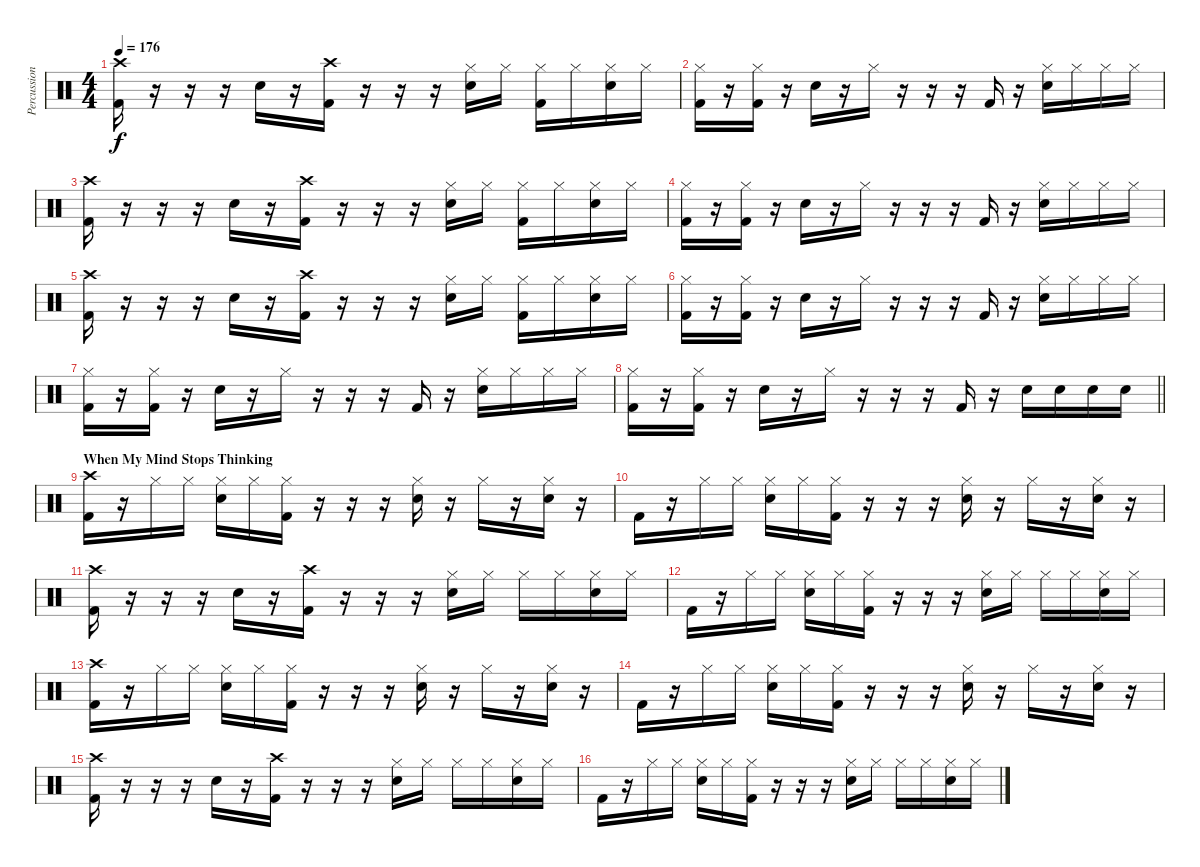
\track ("Percussion" "Percussion") {instrument percussion}
\staff {score}
\articulation defaults
\ts (4 4)
\tempo 176
\clef neutral
\ks c
("Kick (hit) 2" "Crash high (hit)").16{dy f} r.16 r.16 r.16 "Electric Snare (hit)".16 r.16 ("Kick (hit) 2" "Crash high (hit)").16 r.16 r.16 r.16 ("Electric Snare (hit)" "Hi-Hat (closed)").16 "Hi-Hat (closed)".16 ("Kick (hit) 2" "Hi-Hat (closed)").16 "Hi-Hat (closed)".16 ("Electric Snare (hit)" "Hi-Hat (closed)").16 "Hi-Hat (closed)".16 |
("Kick (hit) 2" "Hi-Hat (closed)").16 r.16 ("Kick (hit) 2" "Hi-Hat (closed)").16 r.16 "Electric Snare (hit)".16 r.16 "Hi-Hat (closed)".16 r.16 r.16 r.16 "Kick (hit) 2".16 r.16 ("Electric Snare (hit)" "Hi-Hat (closed)").16 "Hi-Hat (closed)".16 "Hi-Hat (closed)".16 "Hi-Hat (closed)".16 |
("Kick (hit) 2" "Crash high (hit)").16 r.16 r.16 r.16 "Electric Snare (hit)".16 r.16 ("Kick (hit) 2" "Crash high (hit)").16 r.16 r.16 r.16 ("Electric Snare (hit)" "Hi-Hat (closed)").16 "Hi-Hat (closed)".16 ("Kick (hit) 2" "Hi-Hat (closed)").16 "Hi-Hat (closed)".16 ("Electric Snare (hit)" "Hi-Hat (closed)").16 "Hi-Hat (closed)".16 |
("Kick (hit) 2" "Hi-Hat (closed)").16 r.16 ("Kick (hit) 2" "Hi-Hat (closed)").16 r.16 "Electric Snare (hit)".16 r.16 "Hi-Hat (closed)".16 r.16 r.16 r.16 "Kick (hit) 2".16 r.16 ("Electric Snare (hit)" "Hi-Hat (closed)").16 "Hi-Hat (closed)".16 "Hi-Hat (closed)".16 "Hi-Hat (closed)".16 |
("Kick (hit) 2" "Crash high (hit)").16 r.16 r.16 r.16 "Electric Snare (hit)".16 r.16 ("Kick (hit) 2" "Crash high (hit)").16 r.16 r.16 r.16 ("Electric Snare (hit)" "Hi-Hat (closed)").16 "Hi-Hat (closed)".16 ("Kick (hit) 2" "Hi-Hat (closed)").16 "Hi-Hat (closed)".16 ("Electric Snare (hit)" "Hi-Hat (closed)").16 "Hi-Hat (closed)".16 |
("Kick (hit) 2" "Hi-Hat (closed)").16 r.16 ("Kick (hit) 2" "Hi-Hat (closed)").16 r.16 "Electric Snare (hit)".16 r.16 "Hi-Hat (closed)".16 r.16 r.16 r.16 "Kick (hit) 2".16 r.16 ("Electric Snare (hit)" "Hi-Hat (closed)").16 "Hi-Hat (closed)".16 "Hi-Hat (closed)".16 "Hi-Hat (closed)".16 |
("Kick (hit) 2" "Hi-Hat (closed)").16 r.16 ("Kick (hit) 2" "Hi-Hat (closed)").16 r.16 "Electric Snare (hit)".16 r.16 "Hi-Hat (closed)".16 r.16 r.16 r.16 "Kick (hit) 2".16 r.16 ("Electric Snare (hit)" "Hi-Hat (closed)").16 "Hi-Hat (closed)".16 "Hi-Hat (closed)".16 "Hi-Hat (closed)".16 |
\barLineRight lightlight
("Kick (hit) 2" "Hi-Hat (closed)").16 r.16 ("Kick (hit) 2" "Hi-Hat (closed)").16 r.16 "Electric Snare (hit)".16 r.16 "Hi-Hat (closed)".16 r.16 r.16 r.16 "Kick (hit) 2".16 r.16 "Electric Snare (hit)".16 "Electric Snare (hit)".16 "Electric Snare (hit)".16 "Electric Snare (hit)".16 |
\section ("" "When My Mind Stops Thinking")
("Kick (hit) 2" "Crash high (hit)").16 r.16 "Hi-Hat (closed)".16 "Hi-Hat (closed)".16 ("Electric Snare (hit)" "Hi-Hat (closed)").16 "Hi-Hat (closed)".16 ("Kick (hit) 2" "Hi-Hat (closed)").16 r.16 r.16 r.16 ("Electric Snare (hit)" "Hi-Hat (closed)").16 r.16 "Hi-Hat (closed)".16 r.16 ("Electric Snare (hit)" "Hi-Hat (closed)").16 r.16 |
"Kick (hit) 2".16 r.16 "Hi-Hat (closed)".16 "Hi-Hat (closed)".16 ("Electric Snare (hit)" "Hi-Hat (closed)").16 "Hi-Hat (closed)".16 ("Kick (hit) 2" "Hi-Hat (closed)").16 r.16 r.16 r.16 ("Electric Snare (hit)" "Hi-Hat (closed)").16 r.16 "Hi-Hat (closed)".16 r.16 ("Electric Snare (hit)" "Hi-Hat (closed)").16 r.16 |
("Kick (hit) 2" "Crash high (hit)").16 r.16 r.16 r.16 "Electric Snare (hit)".16 r.16 ("Kick (hit) 2" "Crash high (hit)").16 r.16 r.16 r.16 ("Electric Snare (hit)" "Hi-Hat (closed)").16 "Hi-Hat (closed)".16 "Hi-Hat (closed)".16 "Hi-Hat (closed)".16 ("Electric Snare (hit)" "Hi-Hat (closed)").16 "Hi-Hat (closed)".16 |
"Kick (hit) 2".16 r.16 "Hi-Hat (closed)".16 "Hi-Hat (closed)".16 ("Electric Snare (hit)" "Hi-Hat (closed)").16 "Hi-Hat (closed)".16 ("Kick (hit) 2" "Hi-Hat (closed)").16 r.16 r.16 r.16 ("Electric Snare (hit)" "Hi-Hat (closed)").16 "Hi-Hat (closed)".16 "Hi-Hat (closed)".16 "Hi-Hat (closed)".16 ("Electric Snare (hit)" "Hi-Hat (closed)").16 "Hi-Hat (closed)".16 |
("Kick (hit) 2" "Crash high (hit)").16 r.16 "Hi-Hat (closed)".16 "Hi-Hat (closed)".16 ("Electric Snare (hit)" "Hi-Hat (closed)").16 "Hi-Hat (closed)".16 ("Kick (hit) 2" "Hi-Hat (closed)").16 r.16 r.16 r.16 ("Electric Snare (hit)" "Hi-Hat (closed)").16 r.16 "Hi-Hat (closed)".16 r.16 ("Electric Snare (hit)" "Hi-Hat (closed)").16 r.16 |
"Kick (hit) 2".16 r.16 "Hi-Hat (closed)".16 "Hi-Hat (closed)".16 ("Electric Snare (hit)" "Hi-Hat (closed)").16 "Hi-Hat (closed)".16 ("Kick (hit) 2" "Hi-Hat (closed)").16 r.16 r.16 r.16 ("Electric Snare (hit)" "Hi-Hat (closed)").16 r.16 "Hi-Hat (closed)".16 r.16 ("Electric Snare (hit)" "Hi-Hat (closed)").16 r.16 |
("Kick (hit) 2" "Crash high (hit)").16 r.16 r.16 r.16 "Electric Snare (hit)".16 r.16 ("Kick (hit) 2" "Crash high (hit)").16 r.16 r.16 r.16 ("Electric Snare (hit)" "Hi-Hat (closed)").16 "Hi-Hat (closed)".16 "Hi-Hat (closed)".16 "Hi-Hat (closed)".16 ("Electric Snare (hit)" "Hi-Hat (closed)").16 "Hi-Hat (closed)".16 |
"Kick (hit) 2".16 r.16 "Hi-Hat (closed)".16 "Hi-Hat (closed)".16 ("Electric Snare (hit)" "Hi-Hat (closed)").16 "Hi-Hat (closed)".16 ("Kick (hit) 2" "Hi-Hat (closed)").16 r.16 r.16 r.16 ("Electric Snare (hit)" "Hi-Hat (closed)").16 "Hi-Hat (closed)".16 "Hi-Hat (closed)".16 "Hi-Hat (closed)".16 ("Electric Snare (hit)" "Hi-Hat (closed)").16 "Hi-Hat (closed)".16
